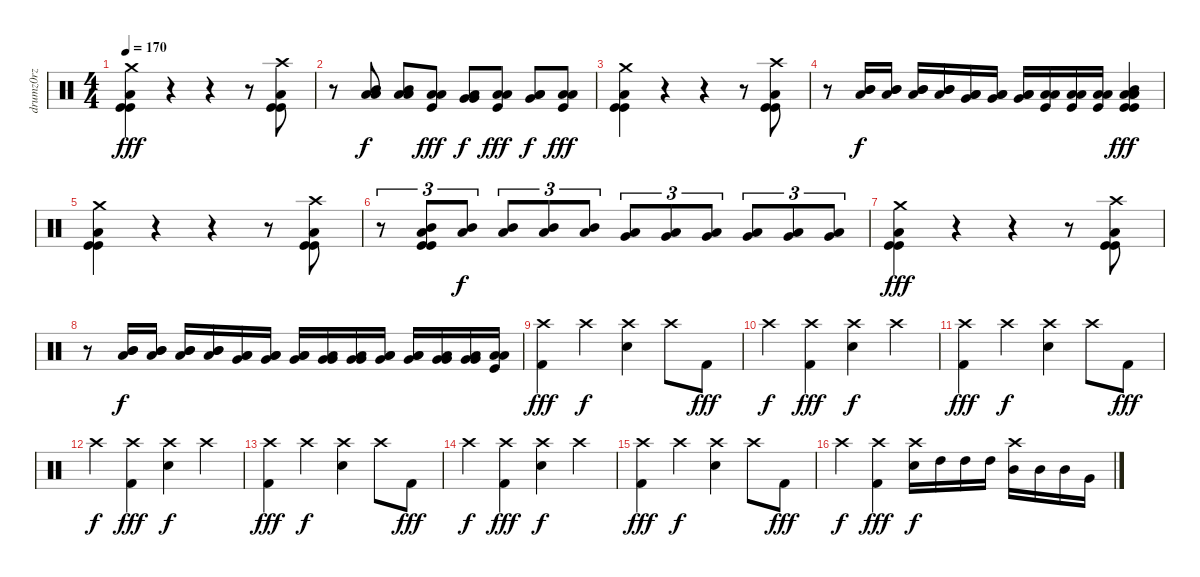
\track ("drumz0rz" "drumz0rz") {instrument percussion}
\staff {score}
\articulation defaults
\ts (4 4)
\tempo 170
\clef neutral
\ks c
("Crash medium (hit)" "Low Floor Tom (hit)" "Kick (hit)" "Kick (hit)").4{dy fff} r.4 r.4 r.8 ("Crash high (hit)" "Low Floor Tom (hit)" "Kick (hit)" "Kick (hit)").8 |
r.8 ("Low Tom (hit)" "Mid Tom (hit)" "Low Tom (hit)").8{dy f} ("Low Tom (hit)" "Mid Tom (hit)" "Low Tom (hit)").8 ("Low Floor Tom (hit)" "Low Floor Tom (hit)" "Kick (hit)").8{dy fff} ("Very Low Tom (hit)" "Low Tom (hit)" "Very Low Tom (hit)").8{dy f} ("Low Floor Tom (hit)" "Low Floor Tom (hit)" "Kick (hit)").8{dy fff} ("Low Floor Tom (hit)" "Very Low Tom (hit)" "Low Floor Tom (hit)").8{dy f} ("Low Floor Tom (hit)" "Low Floor Tom (hit)" "Kick (hit)").8{dy fff} |
("Crash medium (hit)" "Low Floor Tom (hit)" "Kick (hit)" "Kick (hit)").4 r.4 r.4 r.8 ("Crash high (hit)" "Low Floor Tom (hit)" "Kick (hit)" "Kick (hit)").8 |
r.8 ("Mid Tom (hit)" "Mid Tom (hit)" "Low Tom (hit)").16{dy f} ("Mid Tom (hit)" "Mid Tom (hit)" "Low Tom (hit)").16 ("Mid Tom (hit)" "Mid Tom (hit)" "Low Tom (hit)").16 ("Mid Tom (hit)" "Mid Tom (hit)" "Low Tom (hit)").16 ("Low Tom (hit)" "Low Tom (hit)" "Very Low Tom (hit)").16 ("Low Tom (hit)" "Low Tom (hit)" "Very Low Tom (hit)").16 ("Low Tom (hit)" "Low Tom (hit)" "Very Low Tom (hit)").16 ("Low Floor Tom (hit)" "Low Floor Tom (hit)" "Kick (hit)").16 ("Low Floor Tom (hit)" "Low Floor Tom (hit)" "Kick (hit)").16 ("Low Floor Tom (hit)" "Low Floor Tom (hit)" "Kick (hit)").16 ("Mid Tom (hit)" "Low Tom (hit)" "Low Floor Tom (hit)" "Low Floor Tom (hit)" "Kick (hit)" "Kick (hit)").4{dy fff} |
("Crash medium (hit)" "Low Floor Tom (hit)" "Kick (hit)" "Kick (hit)").4 r.4 r.4 r.8 ("Crash high (hit)" "Low Floor Tom (hit)" "Kick (hit)" "Kick (hit)").8 |
r.8{tu (3 2)} ("Mid Tom (hit)" "Low Tom (hit)" "Kick (hit)" "Kick (hit)").8{tu (3 2)} ("Mid Tom (hit)" "Low Tom (hit)").8{tu (3 2) dy f} ("Mid Tom (hit)" "Low Tom (hit)").8{tu (3 2)} ("Mid Tom (hit)" "Low Tom (hit)").8{tu (3 2)} ("Mid Tom (hit)" "Low Tom (hit)").8{tu (3 2)} ("Low Tom (hit)" "Very Low Tom (hit)").8{tu (3 2)} ("Low Tom (hit)" "Very Low Tom (hit)").8{tu (3 2)} ("Low Tom (hit)" "Very Low Tom (hit)").8{tu (3 2)} ("Low Tom (hit)" "Very Low Tom (hit)").8{tu (3 2)} ("Very Low Tom (hit)" "Low Floor Tom (hit)").8{tu (3 2)} ("Very Low Tom (hit)" "Low Floor Tom (hit)").8{tu (3 2)} |
("Crash medium (hit)" "Low Floor Tom (hit)" "Kick (hit)" "Kick (hit)").4{dy fff} r.4 r.4 r.8 ("Crash high (hit)" "Low Floor Tom (hit)" "Kick (hit)" "Kick (hit)").8 |
r.8 ("Mid Tom (hit)" "Mid Tom (hit)" "Low Tom (hit)").16{dy f} ("Mid Tom (hit)" "Mid Tom (hit)" "Low Tom (hit)").16 ("Mid Tom (hit)" "Mid Tom (hit)" "Low Tom (hit)").16 ("Mid Tom (hit)" "Mid Tom (hit)" "Low Tom (hit)").16 ("Low Tom (hit)" "Low Tom (hit)" "Very Low Tom (hit)").16 ("Low Tom (hit)" "Low Tom (hit)" "Very Low Tom (hit)").16 ("Low Tom (hit)" "Low Tom (hit)" "Very Low Tom (hit)").16 ("Very Low Tom (hit)" "Very Low Tom (hit)" "Low Floor Tom (hit)").16 ("Very Low Tom (hit)" "Very Low Tom (hit)" "Low Floor Tom (hit)").16 ("Low Tom (hit)" "Low Tom (hit)" "Very Low Tom (hit)").16 ("Low Tom (hit)" "Low Tom (hit)" "Very Low Tom (hit)").16 ("Very Low Tom (hit)" "Very Low Tom (hit)" "Low Floor Tom (hit)").16 ("Very Low Tom (hit)" "Very Low Tom (hit)" "Low Floor Tom (hit)").16 ("Low Floor Tom (hit)" "Low Floor Tom (hit)" "Kick (hit)").16 |
("Crash high (hit)" "Kick (hit) 2").4{dy fff} "Crash high (hit)".4{dy f} ("Crash high (hit)" "Electric Snare (hit)").4 "Crash high (hit)".8 "Kick (hit) 2".8{dy fff} |
"Crash high (hit)".4{dy f} ("Crash high (hit)" "Kick (hit) 2").4{dy fff} ("Crash high (hit)" "Electric Snare (hit)").4{dy f} "Crash high (hit)".4 |
("Crash high (hit)" "Kick (hit) 2").4{dy fff} "Crash high (hit)".4{dy f} ("Crash high (hit)" "Electric Snare (hit)").4 "Crash high (hit)".8 "Kick (hit) 2".8{dy fff} |
"Crash high (hit)".4{dy f} ("Crash high (hit)" "Kick (hit) 2").4{dy fff} ("Crash high (hit)" "Electric Snare (hit)").4{dy f} "Crash high (hit)".4 |
("Crash high (hit)" "Kick (hit) 2").4{dy fff} "Crash high (hit)".4{dy f} ("Crash high (hit)" "Electric Snare (hit)").4 "Crash high (hit)".8 "Kick (hit) 2".8{dy fff} |
"Crash high (hit)".4{dy f} ("Crash high (hit)" "Kick (hit) 2").4{dy fff} ("Crash high (hit)" "Electric Snare (hit)").4{dy f} "Crash high (hit)".4 |
("Crash high (hit)" "Kick (hit) 2").4{dy fff} "Crash high (hit)".4{dy f} ("Crash high (hit)" "Electric Snare (hit)").4 "Crash high (hit)".8 "Kick (hit) 2".8{dy fff} |
"Crash high (hit)".4{dy f} ("Crash high (hit)" "Kick (hit) 2").4{dy fff} ("Crash high (hit)" "Electric Snare (hit)").16{dy f} "High Tom (hit)".16 "High Tom (hit)".16 "High Tom (hit)".16 ("Crash high (hit)" "Mid Tom (hit)").16 "Mid Tom (hit)".16 "Mid Tom (hit)".16 "Very Low Tom (hit)".16
